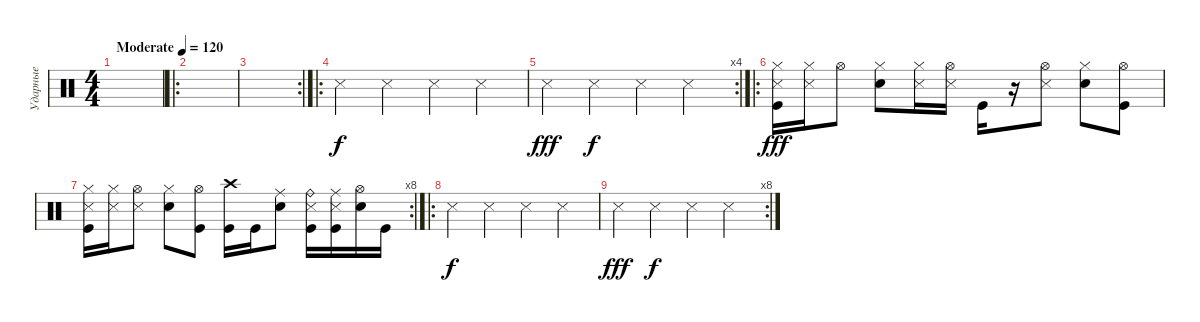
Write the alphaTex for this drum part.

\track ("Ударные" "Ударные") {instrument percussion}
\staff {score}
\articulation defaults
\ts (4 4)
\tempo (120 "Moderate")
\clef neutral
\ks c
|
\ro
|
\rc 2
|
\ro "Snare (side stick) 3".4 "Snare (side stick) 3".4 "Snare (side stick) 3".4 "Snare (side stick) 3".4
|
\rc 4 "Snare (side stick) 3".4{dy fff} "Snare (side stick) 3".4{dy f} "Snare (side stick) 3".4 "Snare (side stick) 3".4
|
\ro
("Hi-Hat (closed)" "Snare (side stick) 3" "Kick (hit)").16{dy fff} ("Hi-Hat (closed)" "Snare (side stick) 3").16 "Hi-Hat (open)".8 ("Hi-Hat (closed)" "Electric Snare (hit)").8 ("Hi-Hat (closed)" "Snare (side stick) 3").16 ("Hi-Hat (open)" "Snare (side stick) 3").16 "Kick (hit)".16 r.16 ("Hi-Hat (open)" "Snare (side stick) 3").8 ("Hi-Hat (closed)" "Electric Snare (hit)").8 ("Hi-Hat (open)" "Kick (hit)").8 |
\rc 8
("Hi-Hat (closed)" "Snare (side stick) 3" "Kick (hit)").16 ("Hi-Hat (closed)" "Snare (side stick) 3").16 ("Hi-Hat (open)" "Snare (side stick) 3").8 ("Hi-Hat (closed)" "Electric Snare (hit)").8 ("Hi-Hat (open)" "Kick (hit)").8 ("Crash high (hit)" "Kick (hit)").16 "Kick (hit)".16 ("Ride (middle)" "Electric Snare (hit)").8 ("Ride (bell)" "Snare (side stick) 3" "Kick (hit)").16 ("Ride (middle)" "Snare (side stick) 3" "Kick (hit)").16 ("Hi-Hat (open)" "Electric Snare (hit)").16 "Kick (hit)".16 |
\ro "Snare (side stick) 3".4{dy f} "Snare (side stick) 3".4 "Snare (side stick) 3".4 "Snare (side stick) 3".4
|
\rc 8 "Snare (side stick) 3".4{dy fff} "Snare (side stick) 3".4{dy f} "Snare (side stick) 3".4 "Snare (side stick) 3".4
